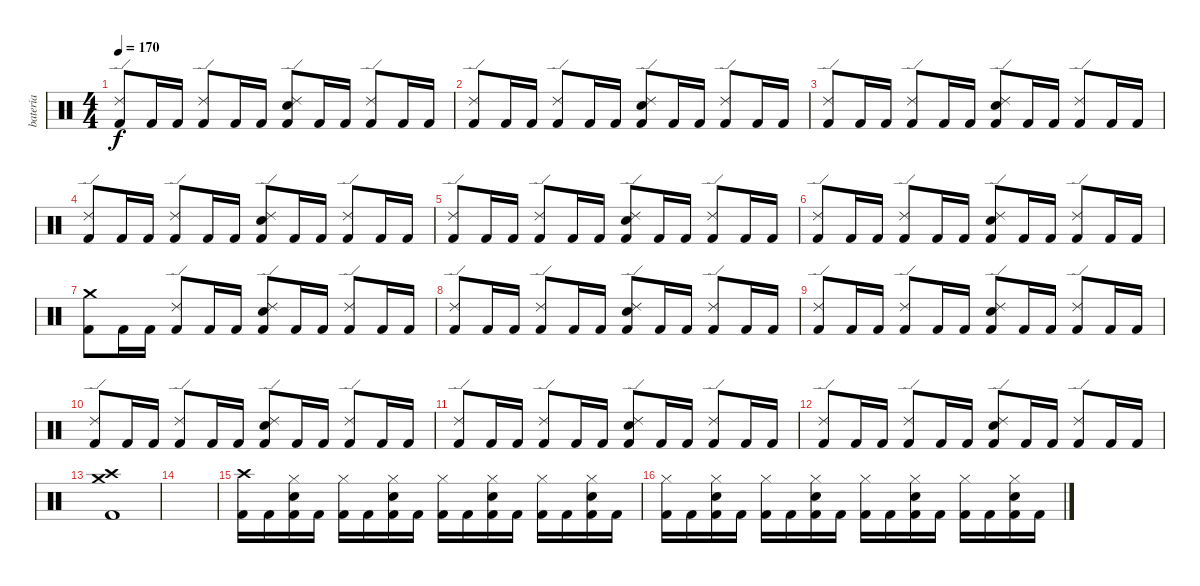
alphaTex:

\track ("bateria" "bateria") {instrument percussion}
\staff {score}
\articulation defaults
\ts (4 4)
\tempo 170
\clef neutral
\ks c
("Ride (edge) 2" "Kick (hit) 2").8{dy f} "Kick (hit) 2".16 "Kick (hit) 2".16 ("Ride (edge) 2" "Kick (hit) 2").8 "Kick (hit) 2".16 "Kick (hit) 2".16 ("Ride (edge) 2" "Snare (hit) 2" "Kick (hit) 2").8 "Kick (hit) 2".16 "Kick (hit) 2".16 ("Ride (edge) 2" "Kick (hit) 2").8 "Kick (hit) 2".16 "Kick (hit) 2".16 |
("Ride (edge) 2" "Kick (hit) 2").8 "Kick (hit) 2".16 "Kick (hit) 2".16 ("Ride (edge) 2" "Kick (hit) 2").8 "Kick (hit) 2".16 "Kick (hit) 2".16 ("Ride (edge) 2" "Snare (hit) 2" "Kick (hit) 2").8 "Kick (hit) 2".16 "Kick (hit) 2".16 ("Ride (edge) 2" "Kick (hit) 2").8 "Kick (hit) 2".16 "Kick (hit) 2".16 |
("Ride (edge) 2" "Kick (hit) 2").8 "Kick (hit) 2".16 "Kick (hit) 2".16 ("Ride (edge) 2" "Kick (hit) 2").8 "Kick (hit) 2".16 "Kick (hit) 2".16 ("Ride (edge) 2" "Snare (hit) 2" "Kick (hit) 2").8 "Kick (hit) 2".16 "Kick (hit) 2".16 ("Ride (edge) 2" "Kick (hit) 2").8 "Kick (hit) 2".16 "Kick (hit) 2".16 |
("Ride (edge) 2" "Kick (hit) 2").8 "Kick (hit) 2".16 "Kick (hit) 2".16 ("Ride (edge) 2" "Kick (hit) 2").8 "Kick (hit) 2".16 "Kick (hit) 2".16 ("Ride (edge) 2" "Snare (hit) 2" "Kick (hit) 2").8 "Kick (hit) 2".16 "Kick (hit) 2".16 ("Ride (edge) 2" "Kick (hit) 2").8 "Kick (hit) 2".16 "Kick (hit) 2".16 |
("Ride (edge) 2" "Kick (hit) 2").8 "Kick (hit) 2".16 "Kick (hit) 2".16 ("Ride (edge) 2" "Kick (hit) 2").8 "Kick (hit) 2".16 "Kick (hit) 2".16 ("Ride (edge) 2" "Snare (hit) 2" "Kick (hit) 2").8 "Kick (hit) 2".16 "Kick (hit) 2".16 ("Ride (edge) 2" "Kick (hit) 2").8 "Kick (hit) 2".16 "Kick (hit) 2".16 |
("Ride (edge) 2" "Kick (hit) 2").8 "Kick (hit) 2".16 "Kick (hit) 2".16 ("Ride (edge) 2" "Kick (hit) 2").8 "Kick (hit) 2".16 "Kick (hit) 2".16 ("Ride (edge) 2" "Snare (hit) 2" "Kick (hit) 2").8 "Kick (hit) 2".16 "Kick (hit) 2".16 ("Ride (edge) 2" "Kick (hit) 2").8 "Kick (hit) 2".16 "Kick (hit) 2".16 |
("Crash medium (hit)" "Kick (hit) 2").8 "Kick (hit) 2".16 "Kick (hit) 2".16 ("Ride (edge) 2" "Kick (hit) 2").8 "Kick (hit) 2".16 "Kick (hit) 2".16 ("Ride (edge) 2" "Snare (hit) 2" "Kick (hit) 2").8 "Kick (hit) 2".16 "Kick (hit) 2".16 ("Ride (edge) 2" "Kick (hit) 2").8 "Kick (hit) 2".16 "Kick (hit) 2".16 |
("Ride (edge) 2" "Kick (hit) 2").8 "Kick (hit) 2".16 "Kick (hit) 2".16 ("Ride (edge) 2" "Kick (hit) 2").8 "Kick (hit) 2".16 "Kick (hit) 2".16 ("Ride (edge) 2" "Snare (hit) 2" "Kick (hit) 2").8 "Kick (hit) 2".16 "Kick (hit) 2".16 ("Ride (edge) 2" "Kick (hit) 2").8 "Kick (hit) 2".16 "Kick (hit) 2".16 |
("Ride (edge) 2" "Kick (hit) 2").8 "Kick (hit) 2".16 "Kick (hit) 2".16 ("Ride (edge) 2" "Kick (hit) 2").8 "Kick (hit) 2".16 "Kick (hit) 2".16 ("Ride (edge) 2" "Snare (hit) 2" "Kick (hit) 2").8 "Kick (hit) 2".16 "Kick (hit) 2".16 ("Ride (edge) 2" "Kick (hit) 2").8 "Kick (hit) 2".16 "Kick (hit) 2".16 |
("Ride (edge) 2" "Kick (hit) 2").8 "Kick (hit) 2".16 "Kick (hit) 2".16 ("Ride (edge) 2" "Kick (hit) 2").8 "Kick (hit) 2".16 "Kick (hit) 2".16 ("Ride (edge) 2" "Snare (hit) 2" "Kick (hit) 2").8 "Kick (hit) 2".16 "Kick (hit) 2".16 ("Ride (edge) 2" "Kick (hit) 2").8 "Kick (hit) 2".16 "Kick (hit) 2".16 |
("Ride (edge) 2" "Kick (hit) 2").8 "Kick (hit) 2".16 "Kick (hit) 2".16 ("Ride (edge) 2" "Kick (hit) 2").8 "Kick (hit) 2".16 "Kick (hit) 2".16 ("Ride (edge) 2" "Snare (hit) 2" "Kick (hit) 2").8 "Kick (hit) 2".16 "Kick (hit) 2".16 ("Ride (edge) 2" "Kick (hit) 2").8 "Kick (hit) 2".16 "Kick (hit) 2".16 |
("Ride (edge) 2" "Kick (hit) 2").8 "Kick (hit) 2".16 "Kick (hit) 2".16 ("Ride (edge) 2" "Kick (hit) 2").8 "Kick (hit) 2".16 "Kick (hit) 2".16 ("Ride (edge) 2" "Snare (hit) 2" "Kick (hit) 2").8 "Kick (hit) 2".16 "Kick (hit) 2".16 ("Ride (edge) 2" "Kick (hit) 2").8 "Kick (hit) 2".16 "Kick (hit) 2".16 |
("Crash high (hit)" "Crash medium (hit)" "Kick (hit) 2").1 |
|
("Crash high (hit)" "Kick (hit) 2").16 "Kick (hit) 2".16 ("Hi-Hat (closed)" "Snare (hit) 2" "Kick (hit) 2").16 "Kick (hit) 2".16 ("Hi-Hat (closed)" "Kick (hit) 2").16 "Kick (hit) 2".16 ("Hi-Hat (closed)" "Snare (hit) 2" "Kick (hit) 2").16 "Kick (hit) 2".16 ("Hi-Hat (closed)" "Kick (hit) 2").16 "Kick (hit) 2".16 ("Hi-Hat (closed)" "Snare (hit) 2" "Kick (hit) 2").16 "Kick (hit) 2".16 ("Hi-Hat (closed)" "Kick (hit) 2").16 "Kick (hit) 2".16 ("Hi-Hat (closed)" "Snare (hit) 2" "Kick (hit) 2").16 "Kick (hit) 2".16 |
("Hi-Hat (closed)" "Kick (hit) 2").16 "Kick (hit) 2".16 ("Hi-Hat (closed)" "Snare (hit) 2" "Kick (hit) 2").16 "Kick (hit) 2".16 ("Hi-Hat (closed)" "Kick (hit) 2").16 "Kick (hit) 2".16 ("Hi-Hat (closed)" "Snare (hit) 2" "Kick (hit) 2").16 "Kick (hit) 2".16 ("Hi-Hat (closed)" "Kick (hit) 2").16 "Kick (hit) 2".16 ("Hi-Hat (closed)" "Snare (hit) 2" "Kick (hit) 2").16 "Kick (hit) 2".16 ("Hi-Hat (closed)" "Kick (hit) 2").16 "Kick (hit) 2".16 ("Hi-Hat (closed)" "Snare (hit) 2" "Kick (hit) 2").16 "Kick (hit) 2".16
